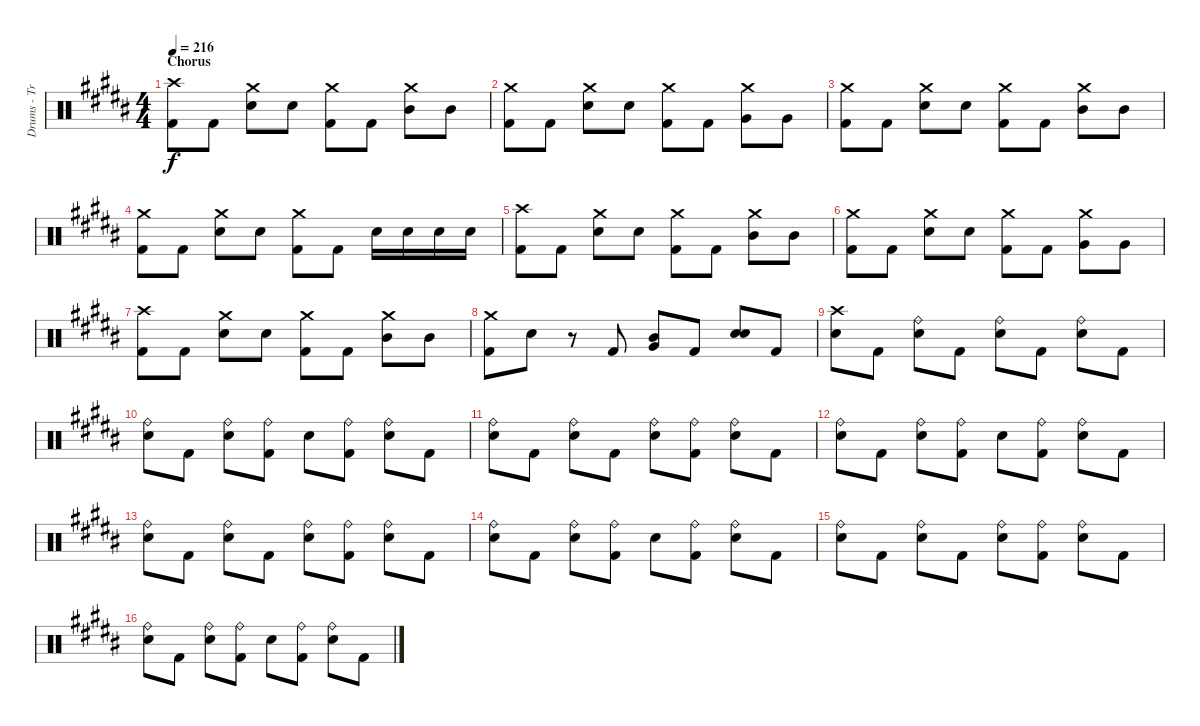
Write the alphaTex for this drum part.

\track ("Drums - Travis Barker" "Drums - Tr") {instrument percussion}
\staff {score}
\articulation defaults
\ts (4 4)
\section ("" "Chorus")
\tempo 216
\clef neutral
\ks b
("Kick (hit) 2" "Crash high (hit)").8{dy f} "Kick (hit) 2".8 ("Snare (hit) 2" "Crash medium (hit)").8 "Snare (hit) 2".8 ("Kick (hit) 2" "Crash medium (hit)").8 "Kick (hit) 2".8 ("Mid Tom (hit)" "Crash medium (hit)").8 "Mid Tom (hit)".8 |
("Kick (hit) 2" "Crash medium (hit)").8 "Kick (hit) 2".8 ("Snare (hit) 2" "Crash medium (hit)").8 "Snare (hit) 2".8 ("Kick (hit) 2" "Crash medium (hit)").8 "Kick (hit) 2".8 ("Very Low Tom (hit)" "Crash medium (hit)").8 "Very Low Tom (hit)".8 |
("Kick (hit) 2" "Crash medium (hit)").8 "Kick (hit) 2".8 ("Snare (hit) 2" "Crash medium (hit)").8 "Snare (hit) 2".8 ("Kick (hit) 2" "Crash medium (hit)").8 "Kick (hit) 2".8 ("Mid Tom (hit)" "Crash medium (hit)").8 "Mid Tom (hit)".8 |
("Kick (hit) 2" "Crash medium (hit)").8 "Kick (hit) 2".8 ("Snare (hit) 2" "Crash medium (hit)").8 "Snare (hit) 2".8 ("Kick (hit) 2" "Crash medium (hit)").8 "Kick (hit) 2".8 "Snare (hit) 2".16 "Snare (hit) 2".16 "Snare (hit) 2".16 "Snare (hit) 2".16 |
("Kick (hit) 2" "Crash high (hit)").8 "Kick (hit) 2".8 ("Snare (hit) 2" "Crash medium (hit)").8 "Snare (hit) 2".8 ("Kick (hit) 2" "Crash medium (hit)").8 "Kick (hit) 2".8 ("Mid Tom (hit)" "Crash medium (hit)").8 "Mid Tom (hit)".8 |
("Kick (hit) 2" "Crash medium (hit)").8 "Kick (hit) 2".8 ("Snare (hit) 2" "Crash medium (hit)").8 "Snare (hit) 2".8 ("Kick (hit) 2" "Crash medium (hit)").8 "Kick (hit) 2".8 ("Very Low Tom (hit)" "Crash medium (hit)").8 "Very Low Tom (hit)".8 |
("Kick (hit) 2" "Crash high (hit)").8 "Kick (hit) 2".8 ("Snare (hit) 2" "Crash medium (hit)").8 "Snare (hit) 2".8 ("Kick (hit) 2" "Crash medium (hit)").8 "Kick (hit) 2".8 ("Mid Tom (hit)" "Crash medium (hit)").8 "Mid Tom (hit)".8 |
("Kick (hit) 2" "Crash medium (hit)").8 "Snare (hit) 2".8 r.8 "Kick (hit) 2".8 ("Mid Tom (hit)" "Very Low Tom (hit)").8 "Kick (hit) 2".8 ("Snare (hit) 2" "Snare (hit) 2").8 "Kick (hit) 2".8 |
("Snare (hit) 2" "Crash high (hit)").8 "Kick (hit) 2".8 ("Snare (hit) 2" "Ride (bell)").8 "Kick (hit) 2".8 ("Snare (hit) 2" "Ride (bell)").8 "Kick (hit) 2".8 ("Snare (hit) 2" "Ride (bell)").8 "Kick (hit) 2".8 |
("Snare (hit) 2" "Ride (bell)").8 "Kick (hit) 2".8 ("Snare (hit) 2" "Ride (bell)").8 ("Kick (hit) 2" "Ride (bell)").8 "Snare (hit) 2".8 ("Kick (hit) 2" "Ride (bell)").8 ("Snare (hit) 2" "Ride (bell)").8 "Kick (hit) 2".8 |
("Snare (hit) 2" "Ride (bell)").8 "Kick (hit) 2".8 ("Snare (hit) 2" "Ride (bell)").8 "Kick (hit) 2".8 ("Snare (hit) 2" "Ride (bell)").8 ("Kick (hit) 2" "Ride (bell)").8 ("Snare (hit) 2" "Ride (bell)").8 "Kick (hit) 2".8 |
("Snare (hit) 2" "Ride (bell)").8 "Kick (hit) 2".8 ("Snare (hit) 2" "Ride (bell)").8 ("Kick (hit) 2" "Ride (bell)").8 "Snare (hit) 2".8 ("Kick (hit) 2" "Ride (bell)").8 ("Snare (hit) 2" "Ride (bell)").8 "Kick (hit) 2".8 |
("Snare (hit) 2" "Ride (bell)").8 "Kick (hit) 2".8 ("Snare (hit) 2" "Ride (bell)").8 "Kick (hit) 2".8 ("Snare (hit) 2" "Ride (bell)").8 ("Kick (hit) 2" "Ride (bell)").8 ("Snare (hit) 2" "Ride (bell)").8 "Kick (hit) 2".8 |
("Snare (hit) 2" "Ride (bell)").8 "Kick (hit) 2".8 ("Snare (hit) 2" "Ride (bell)").8 ("Kick (hit) 2" "Ride (bell)").8 "Snare (hit) 2".8 ("Kick (hit) 2" "Ride (bell)").8 ("Snare (hit) 2" "Ride (bell)").8 "Kick (hit) 2".8 |
("Snare (hit) 2" "Ride (bell)").8 "Kick (hit) 2".8 ("Snare (hit) 2" "Ride (bell)").8 "Kick (hit) 2".8 ("Snare (hit) 2" "Ride (bell)").8 ("Kick (hit) 2" "Ride (bell)").8 ("Snare (hit) 2" "Ride (bell)").8 "Kick (hit) 2".8 |
("Snare (hit) 2" "Ride (bell)").8 "Kick (hit) 2".8 ("Snare (hit) 2" "Ride (bell)").8 ("Kick (hit) 2" "Ride (bell)").8 "Snare (hit) 2".8 ("Kick (hit) 2" "Ride (bell)").8 ("Snare (hit) 2" "Ride (bell)").8 "Kick (hit) 2".8
